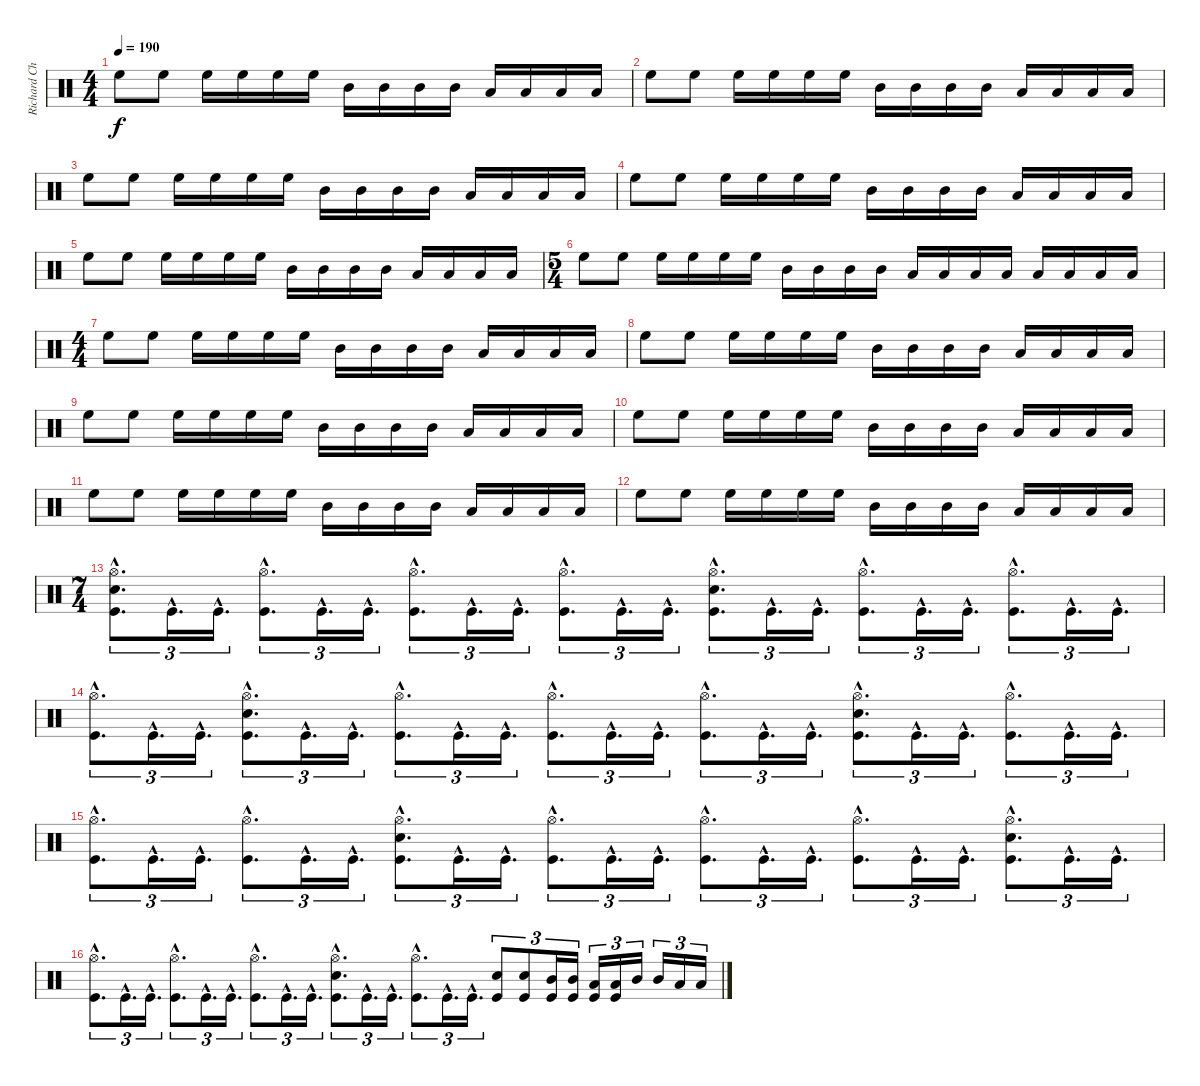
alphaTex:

\track ("Richard Christy" "Richard Ch") {instrument percussion}
\staff {score}
\articulation defaults
\ts (4 4)
\tempo 190
\clef neutral
\ks c "High Floor Tom (hit)".8{dy f} "High Floor Tom (hit)".8 "High Floor Tom (hit)".16 "High Floor Tom (hit)".16 "High Floor Tom (hit)".16 "High Floor Tom (hit)".16 "Mid Tom (hit)".16 "Mid Tom (hit)".16 "Mid Tom (hit)".16 "Mid Tom (hit)".16 "Low Tom (hit)".16 "Low Tom (hit)".16 "Low Tom (hit)".16 "Low Tom (hit)".16
|
"High Floor Tom (hit)".8 "High Floor Tom (hit)".8 "High Floor Tom (hit)".16 "High Floor Tom (hit)".16 "High Floor Tom (hit)".16 "High Floor Tom (hit)".16 "Mid Tom (hit)".16 "Mid Tom (hit)".16 "Mid Tom (hit)".16 "Mid Tom (hit)".16 "Low Tom (hit)".16 "Low Tom (hit)".16 "Low Tom (hit)".16 "Low Tom (hit)".16 |
"High Floor Tom (hit)".8 "High Floor Tom (hit)".8 "High Floor Tom (hit)".16 "High Floor Tom (hit)".16 "High Floor Tom (hit)".16 "High Floor Tom (hit)".16 "Mid Tom (hit)".16 "Mid Tom (hit)".16 "Mid Tom (hit)".16 "Mid Tom (hit)".16 "Low Tom (hit)".16 "Low Tom (hit)".16 "Low Tom (hit)".16 "Low Tom (hit)".16 |
"High Floor Tom (hit)".8 "High Floor Tom (hit)".8 "High Floor Tom (hit)".16 "High Floor Tom (hit)".16 "High Floor Tom (hit)".16 "High Floor Tom (hit)".16 "Mid Tom (hit)".16 "Mid Tom (hit)".16 "Mid Tom (hit)".16 "Mid Tom (hit)".16 "Low Tom (hit)".16 "Low Tom (hit)".16 "Low Tom (hit)".16 "Low Tom (hit)".16 |
"High Floor Tom (hit)".8 "High Floor Tom (hit)".8 "High Floor Tom (hit)".16 "High Floor Tom (hit)".16 "High Floor Tom (hit)".16 "High Floor Tom (hit)".16 "Mid Tom (hit)".16 "Mid Tom (hit)".16 "Mid Tom (hit)".16 "Mid Tom (hit)".16 "Low Tom (hit)".16 "Low Tom (hit)".16 "Low Tom (hit)".16 "Low Tom (hit)".16 |
\ts (5 4)
"High Floor Tom (hit)".8 "High Floor Tom (hit)".8 "High Floor Tom (hit)".16 "High Floor Tom (hit)".16 "High Floor Tom (hit)".16 "High Floor Tom (hit)".16 "Mid Tom (hit)".16 "Mid Tom (hit)".16 "Mid Tom (hit)".16 "Mid Tom (hit)".16 "Low Tom (hit)".16 "Low Tom (hit)".16 "Low Tom (hit)".16 "Low Tom (hit)".16 "Low Floor Tom (hit)".16 "Low Floor Tom (hit)".16 "Low Floor Tom (hit)".16 "Low Floor Tom (hit)".16 |
\ts (4 4)
"High Floor Tom (hit)".8 "High Floor Tom (hit)".8 "High Floor Tom (hit)".16 "High Floor Tom (hit)".16 "High Floor Tom (hit)".16 "High Floor Tom (hit)".16 "Mid Tom (hit)".16 "Mid Tom (hit)".16 "Mid Tom (hit)".16 "Mid Tom (hit)".16 "Low Tom (hit)".16 "Low Tom (hit)".16 "Low Tom (hit)".16 "Low Tom (hit)".16 |
"High Floor Tom (hit)".8 "High Floor Tom (hit)".8 "High Floor Tom (hit)".16 "High Floor Tom (hit)".16 "High Floor Tom (hit)".16 "High Floor Tom (hit)".16 "Mid Tom (hit)".16 "Mid Tom (hit)".16 "Mid Tom (hit)".16 "Mid Tom (hit)".16 "Low Tom (hit)".16 "Low Tom (hit)".16 "Low Tom (hit)".16 "Low Tom (hit)".16 |
"High Floor Tom (hit)".8 "High Floor Tom (hit)".8 "High Floor Tom (hit)".16 "High Floor Tom (hit)".16 "High Floor Tom (hit)".16 "High Floor Tom (hit)".16 "Mid Tom (hit)".16 "Mid Tom (hit)".16 "Mid Tom (hit)".16 "Mid Tom (hit)".16 "Low Tom (hit)".16 "Low Tom (hit)".16 "Low Tom (hit)".16 "Low Tom (hit)".16 |
"High Floor Tom (hit)".8 "High Floor Tom (hit)".8 "High Floor Tom (hit)".16 "High Floor Tom (hit)".16 "High Floor Tom (hit)".16 "High Floor Tom (hit)".16 "Mid Tom (hit)".16 "Mid Tom (hit)".16 "Mid Tom (hit)".16 "Mid Tom (hit)".16 "Low Tom (hit)".16 "Low Tom (hit)".16 "Low Tom (hit)".16 "Low Tom (hit)".16 |
"High Floor Tom (hit)".8 "High Floor Tom (hit)".8 "High Floor Tom (hit)".16 "High Floor Tom (hit)".16 "High Floor Tom (hit)".16 "High Floor Tom (hit)".16 "Mid Tom (hit)".16 "Mid Tom (hit)".16 "Mid Tom (hit)".16 "Mid Tom (hit)".16 "Low Tom (hit)".16 "Low Tom (hit)".16 "Low Tom (hit)".16 "Low Tom (hit)".16 |
"High Floor Tom (hit)".8 "High Floor Tom (hit)".8 "High Floor Tom (hit)".16 "High Floor Tom (hit)".16 "High Floor Tom (hit)".16 "High Floor Tom (hit)".16 "Mid Tom (hit)".16 "Mid Tom (hit)".16 "Mid Tom (hit)".16 "Mid Tom (hit)".16 "Low Tom (hit)".16 "Low Tom (hit)".16 "Low Tom (hit)".16 "Low Tom (hit)".16 |
\ts (7 4)
("Hi-Hat (open)"{hac} "Snare (hit) 2"{hac} "Kick (hit)"{hac}).8{d tu (3 2)} "Kick (hit)"{hac}.16{d tu (3 2)} "Kick (hit)"{hac}.16{d tu (3 2)} ("Hi-Hat (open)"{hac} "Kick (hit)"{hac}).8{d tu (3 2)} "Kick (hit)"{hac}.16{d tu (3 2)} "Kick (hit)"{hac}.16{d tu (3 2)} ("Hi-Hat (open)"{hac} "Kick (hit)"{hac}).8{d tu (3 2)} "Kick (hit)"{hac}.16{d tu (3 2)} "Kick (hit)"{hac}.16{d tu (3 2)} ("Hi-Hat (open)"{hac} "Kick (hit)"{hac}).8{d tu (3 2)} "Kick (hit)"{hac}.16{d tu (3 2)} "Kick (hit)"{hac}.16{d tu (3 2)} ("Hi-Hat (open)"{hac} "Snare (hit) 2"{hac} "Kick (hit)"{hac}).8{d tu (3 2)} "Kick (hit)"{hac}.16{d tu (3 2)} "Kick (hit)"{hac}.16{d tu (3 2)} ("Hi-Hat (open)"{hac} "Kick (hit)"{hac}).8{d tu (3 2)} "Kick (hit)"{hac}.16{d tu (3 2)} "Kick (hit)"{hac}.16{d tu (3 2)} ("Hi-Hat (open)"{hac} "Kick (hit)"{hac}).8{d tu (3 2)} "Kick (hit)"{hac}.16{d tu (3 2)} "Kick (hit)"{hac}.16{d tu (3 2)} |
("Hi-Hat (open)"{hac} "Kick (hit)"{hac}).8{d tu (3 2)} "Kick (hit)"{hac}.16{d tu (3 2)} "Kick (hit)"{hac}.16{d tu (3 2)} ("Hi-Hat (open)"{hac} "Snare (hit) 2"{hac} "Kick (hit)"{hac}).8{d tu (3 2)} "Kick (hit)"{hac}.16{d tu (3 2)} "Kick (hit)"{hac}.16{d tu (3 2)} ("Hi-Hat (open)"{hac} "Kick (hit)"{hac}).8{d tu (3 2)} "Kick (hit)"{hac}.16{d tu (3 2)} "Kick (hit)"{hac}.16{d tu (3 2)} ("Hi-Hat (open)"{hac} "Kick (hit)"{hac}).8{d tu (3 2)} "Kick (hit)"{hac}.16{d tu (3 2)} "Kick (hit)"{hac}.16{d tu (3 2)} ("Hi-Hat (open)"{hac} "Kick (hit)"{hac}).8{d tu (3 2)} "Kick (hit)"{hac}.16{d tu (3 2)} "Kick (hit)"{hac}.16{d tu (3 2)} ("Hi-Hat (open)"{hac} "Snare (hit) 2"{hac} "Kick (hit)"{hac}).8{d tu (3 2)} "Kick (hit)"{hac}.16{d tu (3 2)} "Kick (hit)"{hac}.16{d tu (3 2)} ("Hi-Hat (open)"{hac} "Kick (hit)"{hac}).8{d tu (3 2)} "Kick (hit)"{hac}.16{d tu (3 2)} "Kick (hit)"{hac}.16{d tu (3 2)} |
("Hi-Hat (open)"{hac} "Kick (hit)"{hac}).8{d tu (3 2)} "Kick (hit)"{hac}.16{d tu (3 2)} "Kick (hit)"{hac}.16{d tu (3 2)} ("Hi-Hat (open)"{hac} "Kick (hit)"{hac}).8{d tu (3 2)} "Kick (hit)"{hac}.16{d tu (3 2)} "Kick (hit)"{hac}.16{d tu (3 2)} ("Hi-Hat (open)"{hac} "Snare (hit) 2"{hac} "Kick (hit)"{hac}).8{d tu (3 2)} "Kick (hit)"{hac}.16{d tu (3 2)} "Kick (hit)"{hac}.16{d tu (3 2)} ("Hi-Hat (open)"{hac} "Kick (hit)"{hac}).8{d tu (3 2)} "Kick (hit)"{hac}.16{d tu (3 2)} "Kick (hit)"{hac}.16{d tu (3 2)} ("Hi-Hat (open)"{hac} "Kick (hit)"{hac}).8{d tu (3 2)} "Kick (hit)"{hac}.16{d tu (3 2)} "Kick (hit)"{hac}.16{d tu (3 2)} ("Hi-Hat (open)"{hac} "Kick (hit)"{hac}).8{d tu (3 2)} "Kick (hit)"{hac}.16{d tu (3 2)} "Kick (hit)"{hac}.16{d tu (3 2)} ("Hi-Hat (open)"{hac} "Snare (hit) 2"{hac} "Kick (hit)"{hac}).8{d tu (3 2)} "Kick (hit)"{hac}.16{d tu (3 2)} "Kick (hit)"{hac}.16{d tu (3 2)} |
("Hi-Hat (open)"{hac} "Kick (hit)"{hac}).8{d tu (3 2)} "Kick (hit)"{hac}.16{d tu (3 2)} "Kick (hit)"{hac}.16{d tu (3 2)} ("Hi-Hat (open)"{hac} "Kick (hit)"{hac}).8{d tu (3 2)} "Kick (hit)"{hac}.16{d tu (3 2)} "Kick (hit)"{hac}.16{d tu (3 2)} ("Hi-Hat (open)"{hac} "Kick (hit)"{hac}).8{d tu (3 2)} "Kick (hit)"{hac}.16{d tu (3 2)} "Kick (hit)"{hac}.16{d tu (3 2)} ("Hi-Hat (open)"{hac} "Snare (hit) 2"{hac} "Kick (hit)"{hac}).8{d tu (3 2)} "Kick (hit)"{hac}.16{d tu (3 2)} "Kick (hit)"{hac}.16{d tu (3 2)} ("Hi-Hat (open)"{hac} "Kick (hit)"{hac}).8{d tu (3 2)} "Kick (hit)"{hac}.16{d tu (3 2)} "Kick (hit)"{hac}.16{d tu (3 2)} ("Snare (hit) 2" "Kick (hit)").8{tu (3 2)} ("Snare (hit) 2" "Kick (hit)").8{tu (3 2)} ("Mid Tom (hit)" "Kick (hit)").16{tu (3 2)} ("Mid Tom (hit)" "Kick (hit)").16{tu (3 2)} ("Low Tom (hit)" "Kick (hit)").16{tu (3 2)} ("Low Tom (hit)" "Kick (hit)").16{tu (3 2)} "Mid Tom (hit)".16{tu (3 2)} "Mid Tom (hit)".16{tu (3 2)} "Low Tom (hit)".16{tu (3 2)} "Low Tom (hit)".16{tu (3 2)}
